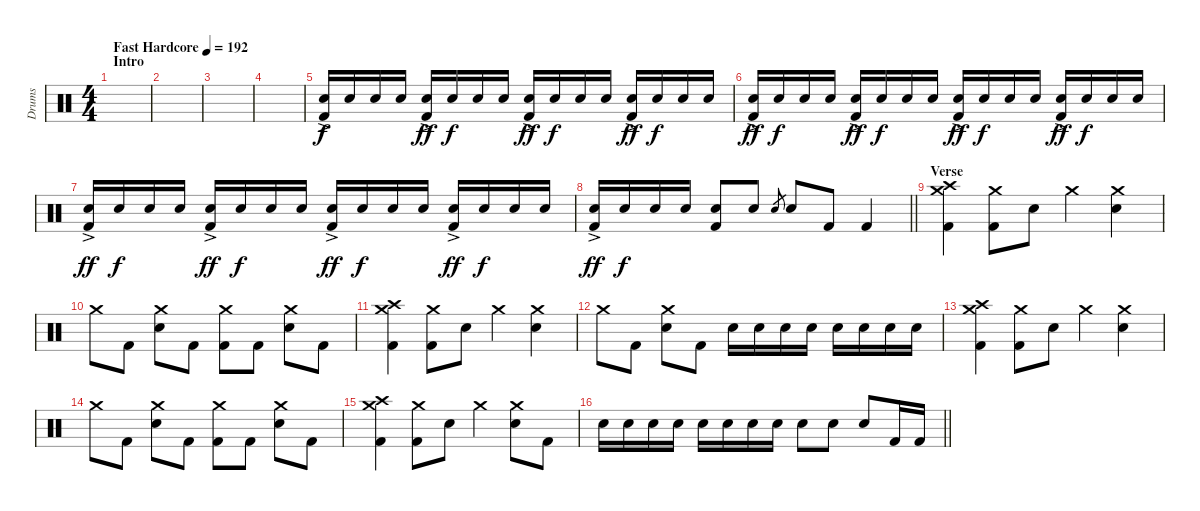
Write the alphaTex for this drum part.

\track ("Drums" "Drums") {instrument percussion}
\staff {score}
\articulation defaults
\ts (4 4)
\section ("" "Intro")
\tempo (192 "Fast Hardcore")
\clef neutral
\ks c
|
|
|
|
("Electric Snare (hit)"{ac} "Kick (hit) 2").16{volume 3} "Electric Snare (hit)".16{dy f} "Electric Snare (hit)".16{volume 14} "Electric Snare (hit)".16 ("Electric Snare (hit)"{ac} "Kick (hit) 2").16{dy ff} "Electric Snare (hit)".16{dy f} "Electric Snare (hit)".16 "Electric Snare (hit)".16 ("Electric Snare (hit)"{ac} "Kick (hit) 2").16{dy ff} "Electric Snare (hit)".16{dy f} "Electric Snare (hit)".16 "Electric Snare (hit)".16 ("Electric Snare (hit)"{ac} "Kick (hit) 2").16{dy ff} "Electric Snare (hit)".16{dy f} "Electric Snare (hit)".16 "Electric Snare (hit)".16 |
("Electric Snare (hit)"{ac} "Kick (hit) 2").16{dy ff} "Electric Snare (hit)".16{dy f} "Electric Snare (hit)".16 "Electric Snare (hit)".16 ("Electric Snare (hit)"{ac} "Kick (hit) 2").16{dy ff} "Electric Snare (hit)".16{dy f} "Electric Snare (hit)".16 "Electric Snare (hit)".16 ("Electric Snare (hit)"{ac} "Kick (hit) 2").16{dy ff} "Electric Snare (hit)".16{dy f} "Electric Snare (hit)".16 "Electric Snare (hit)".16 ("Electric Snare (hit)"{ac} "Kick (hit) 2").16{dy ff} "Electric Snare (hit)".16{dy f} "Electric Snare (hit)".16 "Electric Snare (hit)".16 |
("Electric Snare (hit)"{ac} "Kick (hit) 2").16{dy ff} "Electric Snare (hit)".16{dy f} "Electric Snare (hit)".16 "Electric Snare (hit)".16 ("Electric Snare (hit)"{ac} "Kick (hit) 2").16{dy ff} "Electric Snare (hit)".16{dy f} "Electric Snare (hit)".16 "Electric Snare (hit)".16 ("Electric Snare (hit)"{ac} "Kick (hit) 2").16{dy ff} "Electric Snare (hit)".16{dy f} "Electric Snare (hit)".16 "Electric Snare (hit)".16 ("Electric Snare (hit)"{ac} "Kick (hit) 2").16{dy ff} "Electric Snare (hit)".16{dy f} "Electric Snare (hit)".16 "Electric Snare (hit)".16 |
\barLineRight lightlight
("Electric Snare (hit)"{ac} "Kick (hit) 2").16{dy ff} "Electric Snare (hit)".16{dy f} "Electric Snare (hit)".16 "Electric Snare (hit)".16 ("Electric Snare (hit)" "Kick (hit) 2").8 "Electric Snare (hit)".8 "Electric Snare (hit)".8{gr} "Electric Snare (hit)".8 "Kick (hit) 2".8 "Kick (hit) 2".4 |
\section ("" "Verse")
("Crash medium (hit)" "Crash high (hit)" "Kick (hit) 2").4 ("Crash medium (hit)" "Kick (hit) 2").8 "Electric Snare (hit)".8 "Crash medium (hit)".4 ("Crash medium (hit)" "Electric Snare (hit)").4 |
"Crash medium (hit)".8 "Kick (hit) 2".8 ("Crash medium (hit)" "Electric Snare (hit)").8 "Kick (hit) 2".8 ("Crash medium (hit)" "Kick (hit) 2").8 "Kick (hit) 2".8 ("Crash medium (hit)" "Electric Snare (hit)").8 "Kick (hit) 2".8 |
("Crash medium (hit)" "Crash high (hit)" "Kick (hit) 2").4 ("Crash medium (hit)" "Kick (hit) 2").8 "Electric Snare (hit)".8 "Crash medium (hit)".4 ("Crash medium (hit)" "Electric Snare (hit)").4 |
"Crash medium (hit)".8 "Kick (hit) 2".8 ("Crash medium (hit)" "Electric Snare (hit)").8 "Kick (hit) 2".8 "Electric Snare (hit)".16 "Electric Snare (hit)".16 "Electric Snare (hit)".16 "Electric Snare (hit)".16 "Electric Snare (hit)".16 "Electric Snare (hit)".16 "Electric Snare (hit)".16 "Electric Snare (hit)".16 |
("Crash medium (hit)" "Crash high (hit)" "Kick (hit) 2").4 ("Crash medium (hit)" "Kick (hit) 2").8 "Electric Snare (hit)".8 "Crash medium (hit)".4 ("Crash medium (hit)" "Electric Snare (hit)").4 |
"Crash medium (hit)".8 "Kick (hit) 2".8 ("Crash medium (hit)" "Electric Snare (hit)").8 "Kick (hit) 2".8 ("Crash medium (hit)" "Kick (hit) 2").8 "Kick (hit) 2".8 ("Crash medium (hit)" "Electric Snare (hit)").8 "Kick (hit) 2".8 |
("Crash medium (hit)" "Crash high (hit)" "Kick (hit) 2").4 ("Crash medium (hit)" "Kick (hit) 2").8 "Electric Snare (hit)".8 "Crash medium (hit)".4 ("Crash medium (hit)" "Electric Snare (hit)").8 "Kick (hit) 2".8 |
\barLineRight lightlight "Electric Snare (hit)".16 "Electric Snare (hit)".16 "Electric Snare (hit)".16 "Electric Snare (hit)".16 "Electric Snare (hit)".16 "Electric Snare (hit)".16 "Electric Snare (hit)".16 "Electric Snare (hit)".16 "Electric Snare (hit)".8 "Electric Snare (hit)".8 "Electric Snare (hit)".8 "Kick (hit) 2".16 "Kick (hit) 2".16
